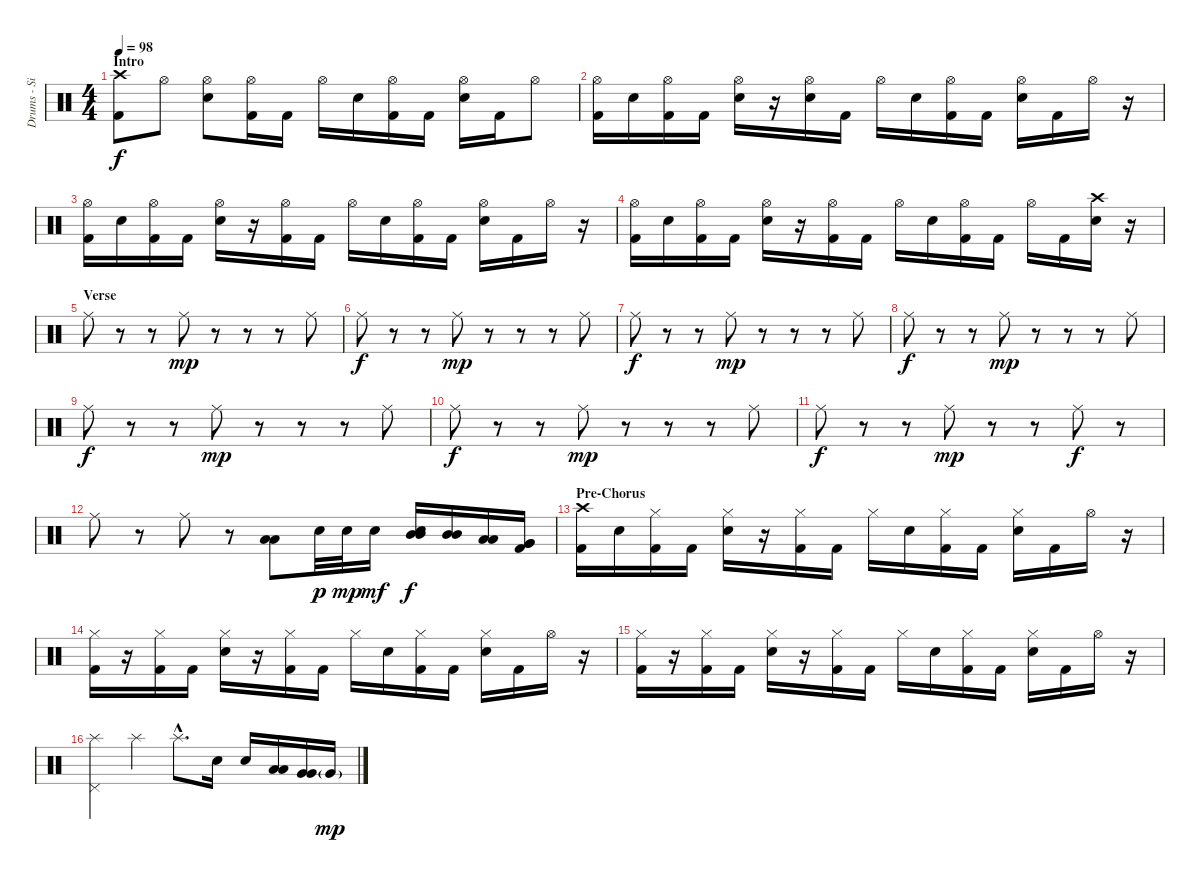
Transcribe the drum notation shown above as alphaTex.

\track ("Drums - Si" "Drums - Si") {instrument percussion}
\staff {score}
\articulation defaults
\ts (4 4)
\section ("" "Intro")
\tempo 98
\clef neutral
\ks c
("Crash high (hit)" "Kick (hit) 2").8{dy f} "Hi-Hat (open)".8 ("Hi-Hat (open)" "Snare (hit) 2").8 ("Hi-Hat (open)" "Kick (hit) 2").16 "Kick (hit) 2".16 "Hi-Hat (open)".16 "Snare (hit) 2".16 ("Hi-Hat (open)" "Kick (hit) 2").16 "Kick (hit) 2".16 ("Hi-Hat (open)" "Snare (hit) 2").16 "Kick (hit) 2".16 "Hi-Hat (open)".8 |
("Hi-Hat (open)" "Kick (hit) 2").16 "Snare (hit) 2".16 ("Hi-Hat (open)" "Kick (hit) 2").16 "Kick (hit) 2".16 ("Hi-Hat (open)" "Snare (hit) 2").16 r.16 ("Hi-Hat (open)" "Snare (hit) 2").16 "Kick (hit) 2".16 "Hi-Hat (open)".16 "Snare (hit) 2".16 ("Hi-Hat (open)" "Kick (hit) 2").16 "Kick (hit) 2".16 ("Hi-Hat (open)" "Snare (hit) 2").16 "Kick (hit) 2".16 "Hi-Hat (open)".16 r.16 |
("Hi-Hat (open)" "Kick (hit) 2").16 "Snare (hit) 2".16 ("Hi-Hat (open)" "Kick (hit) 2").16 "Kick (hit) 2".16 ("Hi-Hat (open)" "Snare (hit) 2").16 r.16 ("Hi-Hat (open)" "Kick (hit) 2").16 "Kick (hit) 2".16 "Hi-Hat (open)".16 "Snare (hit) 2".16 ("Hi-Hat (open)" "Kick (hit) 2").16 "Kick (hit) 2".16 ("Hi-Hat (open)" "Snare (hit) 2").16 "Kick (hit) 2".16 "Hi-Hat (open)".16 r.16 |
("Hi-Hat (open)" "Kick (hit) 2").16 "Snare (hit) 2".16 ("Hi-Hat (open)" "Kick (hit) 2").16 "Kick (hit) 2".16 ("Hi-Hat (open)" "Snare (hit) 2").16 r.16 ("Hi-Hat (open)" "Kick (hit) 2").16 "Kick (hit) 2".16 "Hi-Hat (open)".16 "Snare (hit) 2".16 ("Hi-Hat (open)" "Kick (hit) 2").16 "Kick (hit) 2".16 "Hi-Hat (open)".16 "Kick (hit) 2".16 ("Crash high (hit)" "Snare (hit) 2").16 r.16 |
\section ("" "Verse")
"Ride (middle)".8 r.8 r.8 "Ride (middle)".8{dy mp} r.8 r.8 r.8 "Ride (middle)".8 |
"Ride (middle)".8{dy f} r.8 r.8 "Ride (middle)".8{dy mp} r.8 r.8 r.8 "Ride (middle)".8 |
"Ride (middle)".8{dy f} r.8 r.8 "Ride (middle)".8{dy mp} r.8 r.8 r.8 "Ride (middle)".8 |
"Ride (middle)".8{dy f} r.8 r.8 "Ride (middle)".8{dy mp} r.8 r.8 r.8 "Ride (middle)".8 |
"Ride (middle)".8{dy f} r.8 r.8 "Ride (middle)".8{dy mp} r.8 r.8 r.8 "Ride (middle)".8 |
"Ride (middle)".8{dy f} r.8 r.8 "Ride (middle)".8{dy mp} r.8 r.8 r.8 "Ride (middle)".8 |
"Ride (middle)".8{dy f} r.8 r.8 "Ride (middle)".8{dy mp} r.8 r.8 "Ride (middle)".8{dy f} r.8 |
"Ride (middle)".8 r.8 "Ride (middle)".8 r.8 ("Low Tom (hit)" "Low Tom (hit)").8 "Snare (hit) 2".32{dy p} "Snare (hit) 2".32{dy mp} "Snare (hit) 2".16{dy mf} ("Mid Tom (hit)" "Mid Tom (hit)" "Snare (hit) 2").16{dy f} ("Mid Tom (hit)" "Mid Tom (hit)").16 ("Low Tom (hit)" "Low Tom (hit)").16 ("Very Low Tom (hit)" "Very Low Tom (hit)" "Kick (hit) 2").16 |
\section ("" "Pre-Chorus")
("Crash high (hit)" "Kick (hit) 2").16 "Snare (hit) 2".16 ("Hi-Hat (closed)" "Kick (hit) 2").16 "Kick (hit) 2".16 ("Hi-Hat (closed)" "Snare (hit) 2").16 r.16 ("Hi-Hat (closed)" "Kick (hit) 2").16 "Kick (hit) 2".16 "Hi-Hat (closed)".16 "Snare (hit) 2".16 ("Hi-Hat (closed)" "Kick (hit) 2").16 "Kick (hit) 2".16 ("Hi-Hat (closed)" "Snare (hit) 2").16 "Kick (hit) 2".16 "Hi-Hat (open)".16 r.16 |
("Hi-Hat (closed)" "Kick (hit) 2").16 r.16 ("Hi-Hat (closed)" "Kick (hit) 2").16 "Kick (hit) 2".16 ("Hi-Hat (closed)" "Snare (hit) 2").16 r.16 ("Hi-Hat (closed)" "Kick (hit) 2").16 "Kick (hit) 2".16 "Hi-Hat (closed)".16 "Snare (hit) 2".16 ("Hi-Hat (closed)" "Kick (hit) 2").16 "Kick (hit) 2".16 ("Hi-Hat (closed)" "Snare (hit) 2").16 "Kick (hit) 2".16 "Hi-Hat (open)".16 r.16 |
("Hi-Hat (closed)" "Kick (hit) 2").16 r.16 ("Hi-Hat (closed)" "Kick (hit) 2").16 "Kick (hit) 2".16 ("Hi-Hat (closed)" "Snare (hit) 2").16 r.16 ("Hi-Hat (closed)" "Kick (hit) 2").16 "Kick (hit) 2".16 "Hi-Hat (closed)".16 "Snare (hit) 2".16 ("Hi-Hat (closed)" "Kick (hit) 2").16 "Kick (hit) 2".16 ("Hi-Hat (closed)" "Snare (hit) 2").16 "Kick (hit) 2".16 "Hi-Hat (open)".16 r.16 |
("Splash (hit)" "Pedal Hi-Hat (hit)").4 "Splash (hit)".4 "Splash (hit)"{hac}.8{d} "Snare (hit) 2".16 "Snare (hit) 2".16 ("Low Tom (hit)" "Low Tom (hit)").16 ("Very Low Tom (hit)" "Very Low Tom (hit)").16 "Very Low Tom (hit)"{g}.16{dy mp}
